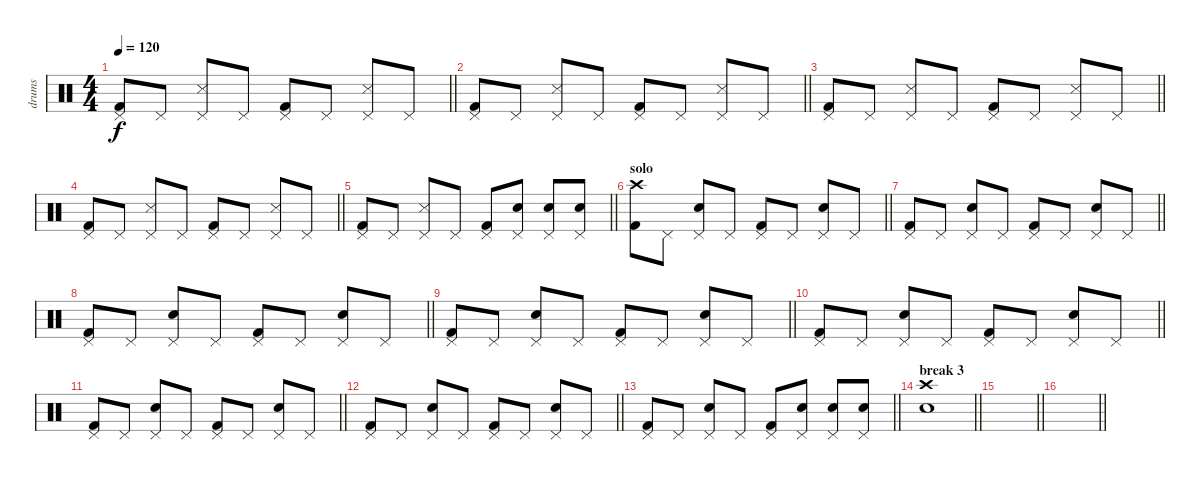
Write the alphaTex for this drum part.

\track ("drums" "drums") {instrument percussion}
\staff {score}
\articulation defaults
\ts (4 4)
\tempo 120
\clef neutral
\barLineRight lightlight
\ks c
("Kick (hit) 2" "Pedal Hi-Hat (hit)").8{dy f} "Pedal Hi-Hat (hit)".8 ("Snare (side stick) 3" "Pedal Hi-Hat (hit)").8 "Pedal Hi-Hat (hit)".8 ("Kick (hit) 2" "Pedal Hi-Hat (hit)").8 "Pedal Hi-Hat (hit)".8 ("Snare (side stick) 3" "Pedal Hi-Hat (hit)").8 "Pedal Hi-Hat (hit)".8 |
\barLineRight lightlight
("Kick (hit) 2" "Pedal Hi-Hat (hit)").8 "Pedal Hi-Hat (hit)".8 ("Snare (side stick) 3" "Pedal Hi-Hat (hit)").8 "Pedal Hi-Hat (hit)".8 ("Kick (hit) 2" "Pedal Hi-Hat (hit)").8 "Pedal Hi-Hat (hit)".8 ("Snare (side stick) 3" "Pedal Hi-Hat (hit)").8 "Pedal Hi-Hat (hit)".8 |
\barLineRight lightlight
("Kick (hit) 2" "Pedal Hi-Hat (hit)").8 "Pedal Hi-Hat (hit)".8 ("Snare (side stick) 3" "Pedal Hi-Hat (hit)").8 "Pedal Hi-Hat (hit)".8 ("Kick (hit) 2" "Pedal Hi-Hat (hit)").8 "Pedal Hi-Hat (hit)".8 ("Snare (side stick) 3" "Pedal Hi-Hat (hit)").8 "Pedal Hi-Hat (hit)".8 |
\barLineRight lightlight
("Kick (hit) 2" "Pedal Hi-Hat (hit)").8 "Pedal Hi-Hat (hit)".8 ("Snare (side stick) 3" "Pedal Hi-Hat (hit)").8 "Pedal Hi-Hat (hit)".8 ("Kick (hit) 2" "Pedal Hi-Hat (hit)").8 "Pedal Hi-Hat (hit)".8 ("Snare (side stick) 3" "Pedal Hi-Hat (hit)").8 "Pedal Hi-Hat (hit)".8 |
\barLineRight lightlight
("Kick (hit) 2" "Pedal Hi-Hat (hit)").8 "Pedal Hi-Hat (hit)".8 ("Snare (side stick) 3" "Pedal Hi-Hat (hit)").8 "Pedal Hi-Hat (hit)".8 ("Kick (hit) 2" "Pedal Hi-Hat (hit)").8 ("Electric Snare (hit)" "Pedal Hi-Hat (hit)").8{volume 16} ("Electric Snare (hit)" "Pedal Hi-Hat (hit)").8 ("Electric Snare (hit)" "Pedal Hi-Hat (hit)").8 |
\section ("" "solo")
\barLineRight lightlight
("Kick (hit) 2" "Crash high (hit)").8 "Pedal Hi-Hat (hit)".8 ("Electric Snare (hit)" "Pedal Hi-Hat (hit)").8 "Pedal Hi-Hat (hit)".8 ("Kick (hit) 2" "Pedal Hi-Hat (hit)").8 "Pedal Hi-Hat (hit)".8 ("Electric Snare (hit)" "Pedal Hi-Hat (hit)").8 "Pedal Hi-Hat (hit)".8 |
\barLineRight lightlight
("Kick (hit) 2" "Pedal Hi-Hat (hit)").8 "Pedal Hi-Hat (hit)".8 ("Electric Snare (hit)" "Pedal Hi-Hat (hit)").8 "Pedal Hi-Hat (hit)".8 ("Kick (hit) 2" "Pedal Hi-Hat (hit)").8 "Pedal Hi-Hat (hit)".8 ("Electric Snare (hit)" "Pedal Hi-Hat (hit)").8 "Pedal Hi-Hat (hit)".8 |
\barLineRight lightlight
("Kick (hit) 2" "Pedal Hi-Hat (hit)").8 "Pedal Hi-Hat (hit)".8 ("Electric Snare (hit)" "Pedal Hi-Hat (hit)").8 "Pedal Hi-Hat (hit)".8 ("Kick (hit) 2" "Pedal Hi-Hat (hit)").8 "Pedal Hi-Hat (hit)".8 ("Electric Snare (hit)" "Pedal Hi-Hat (hit)").8 "Pedal Hi-Hat (hit)".8 |
\barLineRight lightlight
("Kick (hit) 2" "Pedal Hi-Hat (hit)").8 "Pedal Hi-Hat (hit)".8 ("Electric Snare (hit)" "Pedal Hi-Hat (hit)").8 "Pedal Hi-Hat (hit)".8 ("Kick (hit) 2" "Pedal Hi-Hat (hit)").8 "Pedal Hi-Hat (hit)".8 ("Electric Snare (hit)" "Pedal Hi-Hat (hit)").8 "Pedal Hi-Hat (hit)".8 |
\barLineRight lightlight
("Kick (hit) 2" "Pedal Hi-Hat (hit)").8 "Pedal Hi-Hat (hit)".8 ("Electric Snare (hit)" "Pedal Hi-Hat (hit)").8 "Pedal Hi-Hat (hit)".8 ("Kick (hit) 2" "Pedal Hi-Hat (hit)").8 "Pedal Hi-Hat (hit)".8 ("Electric Snare (hit)" "Pedal Hi-Hat (hit)").8 "Pedal Hi-Hat (hit)".8 |
\barLineRight lightlight
("Kick (hit) 2" "Pedal Hi-Hat (hit)").8 "Pedal Hi-Hat (hit)".8 ("Electric Snare (hit)" "Pedal Hi-Hat (hit)").8 "Pedal Hi-Hat (hit)".8 ("Kick (hit) 2" "Pedal Hi-Hat (hit)").8 "Pedal Hi-Hat (hit)".8 ("Electric Snare (hit)" "Pedal Hi-Hat (hit)").8 "Pedal Hi-Hat (hit)".8 |
\barLineRight lightlight
("Kick (hit) 2" "Pedal Hi-Hat (hit)").8 "Pedal Hi-Hat (hit)".8 ("Electric Snare (hit)" "Pedal Hi-Hat (hit)").8 "Pedal Hi-Hat (hit)".8 ("Kick (hit) 2" "Pedal Hi-Hat (hit)").8 "Pedal Hi-Hat (hit)".8 ("Electric Snare (hit)" "Pedal Hi-Hat (hit)").8 "Pedal Hi-Hat (hit)".8 |
\barLineRight lightlight
("Kick (hit) 2" "Pedal Hi-Hat (hit)").8 "Pedal Hi-Hat (hit)".8 ("Electric Snare (hit)" "Pedal Hi-Hat (hit)").8 "Pedal Hi-Hat (hit)".8 ("Kick (hit) 2" "Pedal Hi-Hat (hit)").8 ("Electric Snare (hit)" "Pedal Hi-Hat (hit)").8 ("Electric Snare (hit)" "Pedal Hi-Hat (hit)").8 ("Electric Snare (hit)" "Pedal Hi-Hat (hit)").8 |
\section ("" "break 3")
\barLineRight lightlight
("Electric Snare (hit)" "Crash high (hit)").1 |
\barLineRight lightlight
|
\barLineRight lightlight
